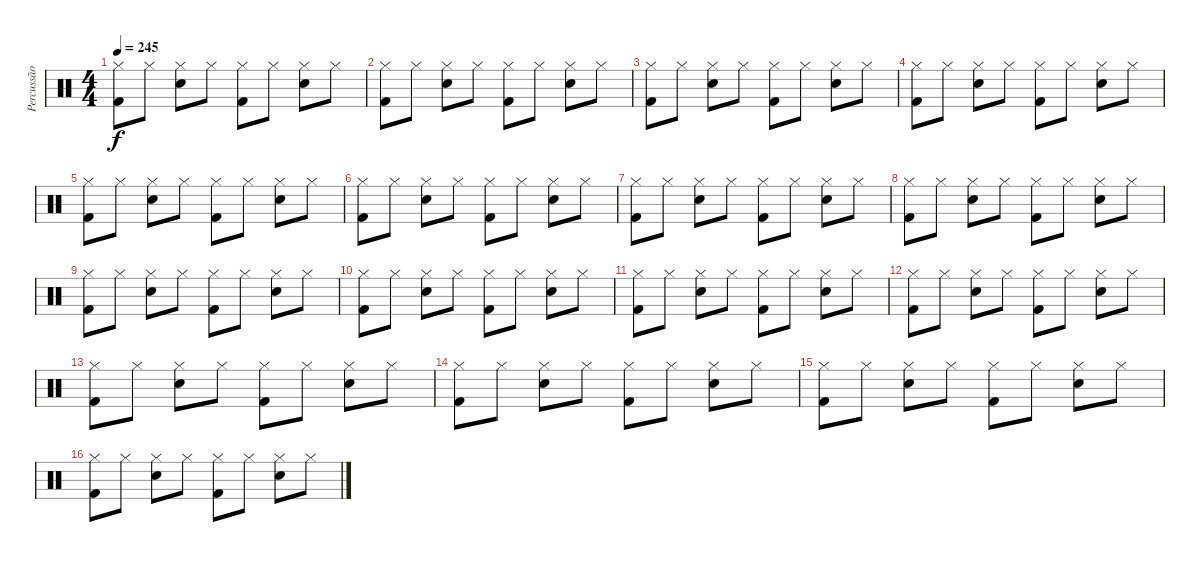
\track ("Percussão" "Percussão") {instrument percussion}
\staff {score}
\articulation defaults
\ts (4 4)
\tempo 245
\clef neutral
\ks c
("Hi-Hat (closed)" "Kick (hit) 2").8{dy f} "Hi-Hat (closed)".8 ("Hi-Hat (closed)" "Snare (hit) 2").8 "Hi-Hat (closed)".8 ("Hi-Hat (closed)" "Kick (hit) 2").8 "Hi-Hat (closed)".8 ("Hi-Hat (closed)" "Snare (hit) 2").8 "Hi-Hat (closed)".8 |
("Hi-Hat (closed)" "Kick (hit) 2").8 "Hi-Hat (closed)".8 ("Hi-Hat (closed)" "Snare (hit) 2").8 "Hi-Hat (closed)".8 ("Hi-Hat (closed)" "Kick (hit) 2").8 "Hi-Hat (closed)".8 ("Hi-Hat (closed)" "Snare (hit) 2").8 "Hi-Hat (closed)".8 |
("Hi-Hat (closed)" "Kick (hit) 2").8 "Hi-Hat (closed)".8 ("Hi-Hat (closed)" "Snare (hit) 2").8 "Hi-Hat (closed)".8 ("Hi-Hat (closed)" "Kick (hit) 2").8 "Hi-Hat (closed)".8 ("Hi-Hat (closed)" "Snare (hit) 2").8 "Hi-Hat (closed)".8 |
("Hi-Hat (closed)" "Kick (hit) 2").8 "Hi-Hat (closed)".8 ("Hi-Hat (closed)" "Snare (hit) 2").8 "Hi-Hat (closed)".8 ("Hi-Hat (closed)" "Kick (hit) 2").8 "Hi-Hat (closed)".8 ("Hi-Hat (closed)" "Snare (hit) 2").8 "Hi-Hat (closed)".8 |
("Hi-Hat (closed)" "Kick (hit) 2").8 "Hi-Hat (closed)".8 ("Hi-Hat (closed)" "Snare (hit) 2").8 "Hi-Hat (closed)".8 ("Hi-Hat (closed)" "Kick (hit) 2").8 "Hi-Hat (closed)".8 ("Hi-Hat (closed)" "Snare (hit) 2").8 "Hi-Hat (closed)".8 |
("Hi-Hat (closed)" "Kick (hit) 2").8 "Hi-Hat (closed)".8 ("Hi-Hat (closed)" "Snare (hit) 2").8 "Hi-Hat (closed)".8 ("Hi-Hat (closed)" "Kick (hit) 2").8 "Hi-Hat (closed)".8 ("Hi-Hat (closed)" "Snare (hit) 2").8 "Hi-Hat (closed)".8 |
("Hi-Hat (closed)" "Kick (hit) 2").8 "Hi-Hat (closed)".8 ("Hi-Hat (closed)" "Snare (hit) 2").8 "Hi-Hat (closed)".8 ("Hi-Hat (closed)" "Kick (hit) 2").8 "Hi-Hat (closed)".8 ("Hi-Hat (closed)" "Snare (hit) 2").8 "Hi-Hat (closed)".8 |
("Hi-Hat (closed)" "Kick (hit) 2").8 "Hi-Hat (closed)".8 ("Hi-Hat (closed)" "Snare (hit) 2").8 "Hi-Hat (closed)".8 ("Hi-Hat (closed)" "Kick (hit) 2").8 "Hi-Hat (closed)".8 ("Hi-Hat (closed)" "Snare (hit) 2").8 "Hi-Hat (closed)".8 |
("Hi-Hat (closed)" "Kick (hit) 2").8 "Hi-Hat (closed)".8 ("Hi-Hat (closed)" "Snare (hit) 2").8 "Hi-Hat (closed)".8 ("Hi-Hat (closed)" "Kick (hit) 2").8 "Hi-Hat (closed)".8 ("Hi-Hat (closed)" "Snare (hit) 2").8 "Hi-Hat (closed)".8 |
("Hi-Hat (closed)" "Kick (hit) 2").8 "Hi-Hat (closed)".8 ("Hi-Hat (closed)" "Snare (hit) 2").8 "Hi-Hat (closed)".8 ("Hi-Hat (closed)" "Kick (hit) 2").8 "Hi-Hat (closed)".8 ("Hi-Hat (closed)" "Snare (hit) 2").8 "Hi-Hat (closed)".8 |
("Hi-Hat (closed)" "Kick (hit) 2").8 "Hi-Hat (closed)".8 ("Hi-Hat (closed)" "Snare (hit) 2").8 "Hi-Hat (closed)".8 ("Hi-Hat (closed)" "Kick (hit) 2").8 "Hi-Hat (closed)".8 ("Hi-Hat (closed)" "Snare (hit) 2").8 "Hi-Hat (closed)".8 |
("Hi-Hat (closed)" "Kick (hit) 2").8 "Hi-Hat (closed)".8 ("Hi-Hat (closed)" "Snare (hit) 2").8 "Hi-Hat (closed)".8 ("Hi-Hat (closed)" "Kick (hit) 2").8 "Hi-Hat (closed)".8 ("Hi-Hat (closed)" "Snare (hit) 2").8 "Hi-Hat (closed)".8 |
("Hi-Hat (closed)" "Kick (hit) 2").8 "Hi-Hat (closed)".8 ("Hi-Hat (closed)" "Snare (hit) 2").8 "Hi-Hat (closed)".8 ("Hi-Hat (closed)" "Kick (hit) 2").8 "Hi-Hat (closed)".8 ("Hi-Hat (closed)" "Snare (hit) 2").8 "Hi-Hat (closed)".8 |
("Hi-Hat (closed)" "Kick (hit) 2").8 "Hi-Hat (closed)".8 ("Hi-Hat (closed)" "Snare (hit) 2").8 "Hi-Hat (closed)".8 ("Hi-Hat (closed)" "Kick (hit) 2").8 "Hi-Hat (closed)".8 ("Hi-Hat (closed)" "Snare (hit) 2").8 "Hi-Hat (closed)".8 |
("Hi-Hat (closed)" "Kick (hit) 2").8 "Hi-Hat (closed)".8 ("Hi-Hat (closed)" "Snare (hit) 2").8 "Hi-Hat (closed)".8 ("Hi-Hat (closed)" "Kick (hit) 2").8 "Hi-Hat (closed)".8 ("Hi-Hat (closed)" "Snare (hit) 2").8 "Hi-Hat (closed)".8 |
("Hi-Hat (closed)" "Kick (hit) 2").8 "Hi-Hat (closed)".8 ("Hi-Hat (closed)" "Snare (hit) 2").8 "Hi-Hat (closed)".8 ("Hi-Hat (closed)" "Kick (hit) 2").8 "Hi-Hat (closed)".8 ("Hi-Hat (closed)" "Snare (hit) 2").8 "Hi-Hat (closed)".8
